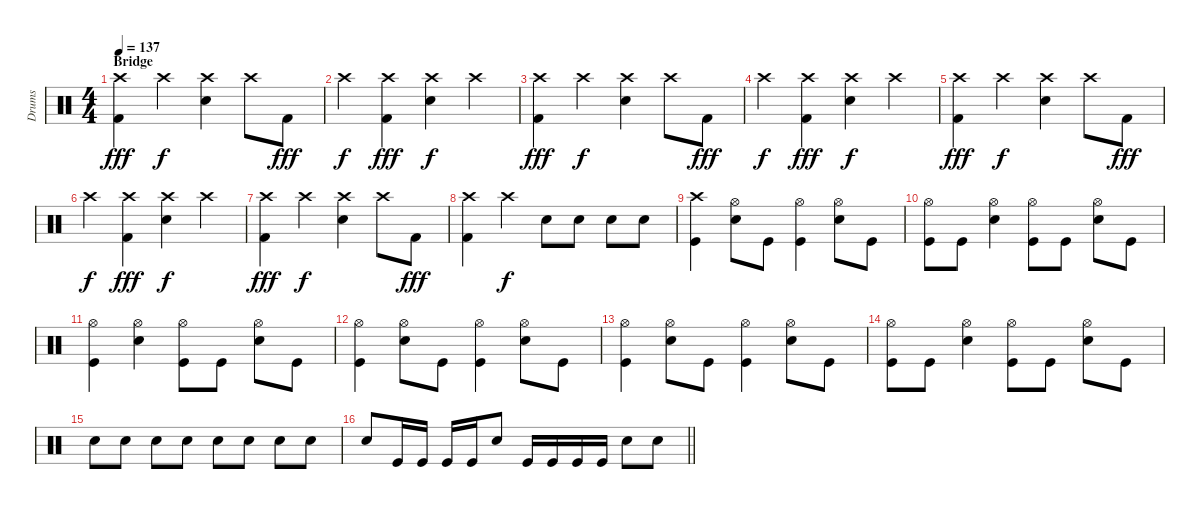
\track ("Drums" "Drums") {instrument percussion}
\staff {score}
\articulation defaults
\ts (4 4)
\section ("" "Bridge")
\tempo 137
\clef neutral
\ks c
("Crash high (hit)" "Kick (hit) 2").4{dy fff} "Crash high (hit)".4{dy f} ("Crash high (hit)" "Electric Snare (hit)").4 "Crash high (hit)".8 "Kick (hit) 2".8{dy fff} |
"Crash high (hit)".4{dy f} ("Crash high (hit)" "Kick (hit) 2").4{dy fff} ("Crash high (hit)" "Electric Snare (hit)").4{dy f} "Crash high (hit)".4 |
("Crash high (hit)" "Kick (hit) 2").4{dy fff} "Crash high (hit)".4{dy f} ("Crash high (hit)" "Electric Snare (hit)").4 "Crash high (hit)".8 "Kick (hit) 2".8{dy fff} |
"Crash high (hit)".4{dy f} ("Crash high (hit)" "Kick (hit) 2").4{dy fff} ("Crash high (hit)" "Electric Snare (hit)").4{dy f} "Crash high (hit)".4 |
("Crash high (hit)" "Kick (hit) 2").4{dy fff} "Crash high (hit)".4{dy f} ("Crash high (hit)" "Electric Snare (hit)").4 "Crash high (hit)".8 "Kick (hit) 2".8{dy fff} |
"Crash high (hit)".4{dy f} ("Crash high (hit)" "Kick (hit) 2").4{dy fff} ("Crash high (hit)" "Electric Snare (hit)").4{dy f} "Crash high (hit)".4 |
("Crash high (hit)" "Kick (hit) 2").4{dy fff} "Crash high (hit)".4{dy f} ("Crash high (hit)" "Electric Snare (hit)").4 "Crash high (hit)".8 "Kick (hit) 2".8{dy fff} |
("Crash high (hit)" "Kick (hit) 2").4 "Crash high (hit)".4{dy f} "Electric Snare (hit)".8 "Electric Snare (hit)".8 "Electric Snare (hit)".8 "Electric Snare (hit)".8 |
("Crash high (hit)" "Kick (hit)").4 ("Hi-Hat (open)" "Electric Snare (hit)").8 "Kick (hit)".8 ("Hi-Hat (open)" "Kick (hit)").4 ("Hi-Hat (open)" "Electric Snare (hit)").8 "Kick (hit)".8 |
("Hi-Hat (open)" "Kick (hit)").8 "Kick (hit)".8 ("Hi-Hat (open)" "Electric Snare (hit)").4 ("Hi-Hat (open)" "Kick (hit)").8 "Kick (hit)".8 ("Hi-Hat (open)" "Electric Snare (hit)").8 "Kick (hit)".8 |
("Hi-Hat (open)" "Kick (hit)").4 ("Hi-Hat (open)" "Electric Snare (hit)").4 ("Hi-Hat (open)" "Kick (hit)").8 "Kick (hit)".8 ("Hi-Hat (open)" "Electric Snare (hit)").8 "Kick (hit)".8 |
("Hi-Hat (open)" "Kick (hit)").4 ("Hi-Hat (open)" "Electric Snare (hit)").8 "Kick (hit)".8 ("Hi-Hat (open)" "Kick (hit)").4 ("Hi-Hat (open)" "Electric Snare (hit)").8 "Kick (hit)".8 |
("Hi-Hat (open)" "Kick (hit)").4 ("Hi-Hat (open)" "Electric Snare (hit)").8 "Kick (hit)".8 ("Hi-Hat (open)" "Kick (hit)").4 ("Hi-Hat (open)" "Electric Snare (hit)").8 "Kick (hit)".8 |
("Hi-Hat (open)" "Kick (hit)").8 "Kick (hit)".8 ("Hi-Hat (open)" "Electric Snare (hit)").4 ("Hi-Hat (open)" "Kick (hit)").8 "Kick (hit)".8 ("Hi-Hat (open)" "Electric Snare (hit)").8 "Kick (hit)".8 |
"Electric Snare (hit)".8 "Electric Snare (hit)".8 "Electric Snare (hit)".8 "Electric Snare (hit)".8 "Electric Snare (hit)".8 "Electric Snare (hit)".8 "Electric Snare (hit)".8 "Electric Snare (hit)".8 |
\barLineRight lightlight "Electric Snare (hit)".8 "Kick (hit)".16 "Kick (hit)".16 "Kick (hit)".16 "Kick (hit)".16 "Electric Snare (hit)".8 "Kick (hit)".16 "Kick (hit)".16 "Kick (hit)".16 "Kick (hit)".16 "Electric Snare (hit)".8 "Electric Snare (hit)".8
